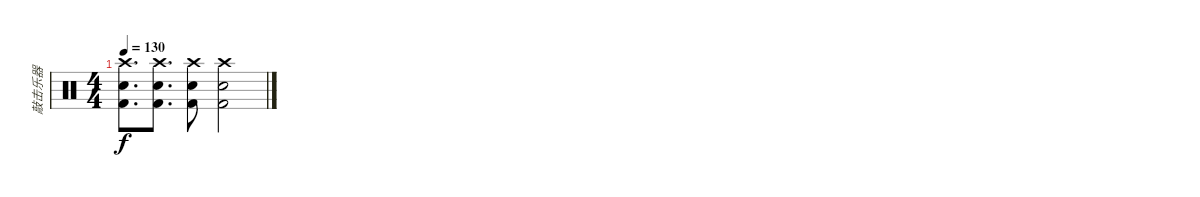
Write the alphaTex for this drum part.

\track ("敲击乐器" "敲击乐器") {instrument percussion}
\staff {score}
\articulation defaults
\ts (4 4)
\tempo 130
\clef neutral
\ks c
("Crash high (hit)" "Snare (hit) 2" "Kick (hit) 2").8{d dy f} ("Crash high (hit)" "Snare (hit) 2" "Kick (hit) 2").8{d} ("Crash high (hit)" "Snare (hit) 2" "Kick (hit) 2").8 ("Crash high (hit)" "Snare (hit) 2" "Kick (hit) 2").2
